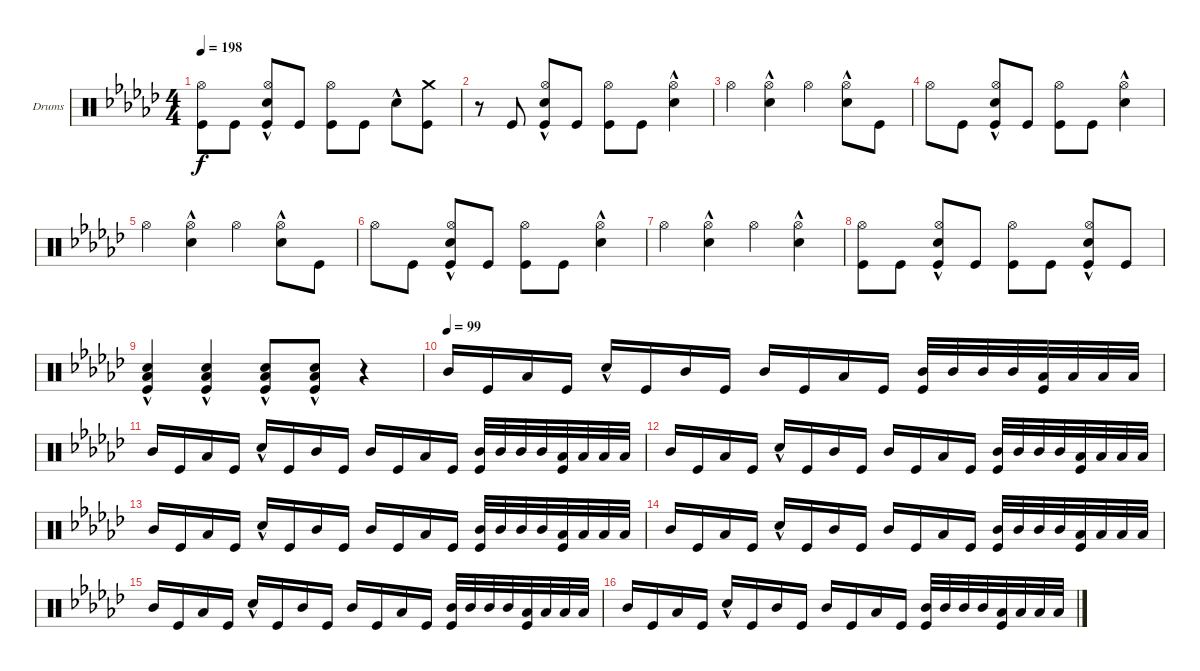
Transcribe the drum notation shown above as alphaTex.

\bracketExtendMode groupsimilarinstruments
\firstSystemTrackNameOrientation horizontal
\otherSystemsTrackNameOrientation horizontal
\track ("Drumkit" "Drums") {instrument percussion}
\staff {score}
\articulation defaults
\ts (4 4)
\tempo 198
\clef neutral
\ks ebminor
("Kick (hit)" "Hi-Hat (open)").8{dy f} "Kick (hit)".8 ("Kick (hit)" "Hi-Hat (open)" "Snare (hit) 2"{hac}).8 "Kick (hit)".8 ("Kick (hit)" "Hi-Hat (open)").8 "Kick (hit)".8 "Snare (hit) 2"{hac}.8 ("Kick (hit)" "Crash medium (hit)").8 |
r.8 "Kick (hit)".8 ("Hi-Hat (open)" "Snare (hit) 2"{hac} "Kick (hit)").8 "Kick (hit)".8 ("Hi-Hat (open)" "Kick (hit)").8 "Kick (hit)".8 ("Snare (hit) 2"{hac} "Hi-Hat (open)").4 |
"Hi-Hat (open)".4 ("Snare (hit) 2"{hac} "Hi-Hat (open)").4 "Hi-Hat (open)".4 ("Snare (hit) 2"{hac} "Hi-Hat (open)").8 "Kick (hit)".8 |
"Hi-Hat (open)".8 "Kick (hit)".8 ("Hi-Hat (open)" "Snare (hit) 2"{hac} "Kick (hit)").8 "Kick (hit)".8 ("Hi-Hat (open)" "Kick (hit)").8 "Kick (hit)".8 ("Snare (hit) 2"{hac} "Hi-Hat (open)").4 |
"Hi-Hat (open)".4 ("Snare (hit) 2"{hac} "Hi-Hat (open)").4 "Hi-Hat (open)".4 ("Snare (hit) 2"{hac} "Hi-Hat (open)").8 "Kick (hit)".8 |
"Hi-Hat (open)".8 "Kick (hit)".8 ("Hi-Hat (open)" "Snare (hit) 2"{hac} "Kick (hit)").8 "Kick (hit)".8 ("Hi-Hat (open)" "Kick (hit)").8 "Kick (hit)".8 ("Snare (hit) 2"{hac} "Hi-Hat (open)").4 |
"Hi-Hat (open)".4 ("Snare (hit) 2"{hac} "Hi-Hat (open)").4 "Hi-Hat (open)".4 ("Snare (hit) 2"{hac} "Hi-Hat (open)").4 |
("Kick (hit)" "Hi-Hat (open)").8 "Kick (hit)".8 ("Kick (hit)" "Hi-Hat (open)" "Snare (hit) 2"{hac}).8 "Kick (hit)".8 ("Kick (hit)" "Hi-Hat (open)").8 "Kick (hit)".8 ("Kick (hit)" "Hi-Hat (open)" "Snare (hit) 2"{hac}).8 "Kick (hit)".8 |
("Kick (hit)" "Snare (hit) 2"{hac} "Low Tom (hit)"{hac}).4 ("Kick (hit)" "Snare (hit) 2"{hac} "Low Tom (hit)"{hac}).4 ("Kick (hit)" "Snare (hit) 2"{hac} "Low Tom (hit)"{hac}).8 ("Kick (hit)" "Snare (hit) 2"{hac} "Low Tom (hit)"{hac}).8 r.4 |
\tempo (99)
"Mid Tom (hit)".16 "Kick (hit)".16 "Low Tom (hit)".16 "Kick (hit)".16 "Snare (hit) 2"{hac}.16 "Kick (hit)".16 "Mid Tom (hit)".16 "Kick (hit)".16 "Mid Tom (hit)".16 "Kick (hit)".16 "Low Tom (hit)".16 "Kick (hit)".16 ("Mid Tom (hit)" "Kick (hit)").32 "Mid Tom (hit)".32 "Mid Tom (hit)".32 "Mid Tom (hit)".32 ("Low Tom (hit)" "Kick (hit)").32 "Low Tom (hit)".32 "Low Tom (hit)".32 "Low Tom (hit)".32 |
"Mid Tom (hit)".16 "Kick (hit)".16 "Low Tom (hit)".16 "Kick (hit)".16 "Snare (hit) 2"{hac}.16 "Kick (hit)".16 "Mid Tom (hit)".16 "Kick (hit)".16 "Mid Tom (hit)".16 "Kick (hit)".16 "Low Tom (hit)".16 "Kick (hit)".16 ("Mid Tom (hit)" "Kick (hit)").32 "Mid Tom (hit)".32 "Mid Tom (hit)".32 "Mid Tom (hit)".32 ("Low Tom (hit)" "Kick (hit)").32 "Low Tom (hit)".32 "Low Tom (hit)".32 "Low Tom (hit)".32 |
"Mid Tom (hit)".16 "Kick (hit)".16 "Low Tom (hit)".16 "Kick (hit)".16 "Snare (hit) 2"{hac}.16 "Kick (hit)".16 "Mid Tom (hit)".16 "Kick (hit)".16 "Mid Tom (hit)".16 "Kick (hit)".16 "Low Tom (hit)".16 "Kick (hit)".16 ("Mid Tom (hit)" "Kick (hit)").32 "Mid Tom (hit)".32 "Mid Tom (hit)".32 "Mid Tom (hit)".32 ("Low Tom (hit)" "Kick (hit)").32 "Low Tom (hit)".32 "Low Tom (hit)".32 "Low Tom (hit)".32 |
"Mid Tom (hit)".16 "Kick (hit)".16 "Low Tom (hit)".16 "Kick (hit)".16 "Snare (hit) 2"{hac}.16 "Kick (hit)".16 "Mid Tom (hit)".16 "Kick (hit)".16 "Mid Tom (hit)".16 "Kick (hit)".16 "Low Tom (hit)".16 "Kick (hit)".16 ("Mid Tom (hit)" "Kick (hit)").32 "Mid Tom (hit)".32 "Mid Tom (hit)".32 "Mid Tom (hit)".32 ("Low Tom (hit)" "Kick (hit)").32 "Low Tom (hit)".32 "Low Tom (hit)".32 "Low Tom (hit)".32 |
"Mid Tom (hit)".16 "Kick (hit)".16 "Low Tom (hit)".16 "Kick (hit)".16 "Snare (hit) 2"{hac}.16 "Kick (hit)".16 "Mid Tom (hit)".16 "Kick (hit)".16 "Mid Tom (hit)".16 "Kick (hit)".16 "Low Tom (hit)".16 "Kick (hit)".16 ("Mid Tom (hit)" "Kick (hit)").32 "Mid Tom (hit)".32 "Mid Tom (hit)".32 "Mid Tom (hit)".32 ("Low Tom (hit)" "Kick (hit)").32 "Low Tom (hit)".32 "Low Tom (hit)".32 "Low Tom (hit)".32 |
"Mid Tom (hit)".16 "Kick (hit)".16 "Low Tom (hit)".16 "Kick (hit)".16 "Snare (hit) 2"{hac}.16 "Kick (hit)".16 "Mid Tom (hit)".16 "Kick (hit)".16 "Mid Tom (hit)".16 "Kick (hit)".16 "Low Tom (hit)".16 "Kick (hit)".16 ("Mid Tom (hit)" "Kick (hit)").32 "Mid Tom (hit)".32 "Mid Tom (hit)".32 "Mid Tom (hit)".32 ("Low Tom (hit)" "Kick (hit)").32 "Low Tom (hit)".32 "Low Tom (hit)".32 "Low Tom (hit)".32 |
"Mid Tom (hit)".16 "Kick (hit)".16 "Low Tom (hit)".16 "Kick (hit)".16 "Snare (hit) 2"{hac}.16 "Kick (hit)".16 "Mid Tom (hit)".16 "Kick (hit)".16 "Mid Tom (hit)".16 "Kick (hit)".16 "Low Tom (hit)".16 "Kick (hit)".16 ("Mid Tom (hit)" "Kick (hit)").32 "Mid Tom (hit)".32 "Mid Tom (hit)".32 "Mid Tom (hit)".32 ("Low Tom (hit)" "Kick (hit)").32 "Low Tom (hit)".32 "Low Tom (hit)".32 "Low Tom (hit)".32
